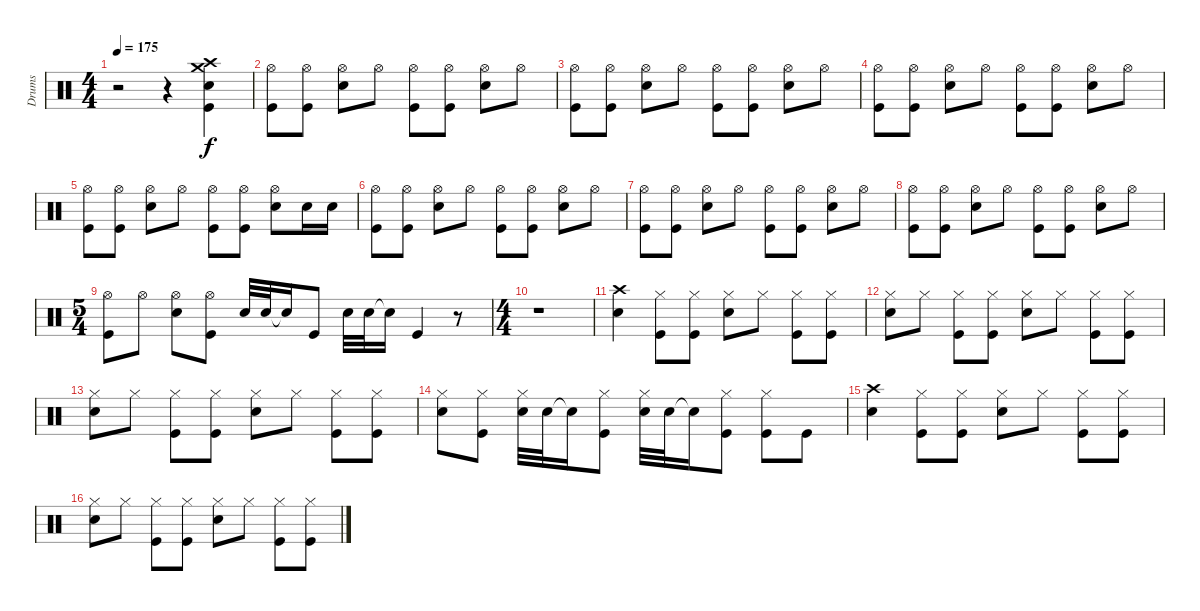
\track ("Drums" "Drums") {instrument percussion}
\staff {score}
\articulation defaults
\ts (4 4)
\tempo 175
\clef neutral
\ks c
r.2{dy f} r.4 ("Crash medium (hit)" "Crash high (hit)" "Snare (hit) 2" "Kick (hit)").4 |
("Hi-Hat (open)" "Kick (hit)").8 ("Hi-Hat (open)" "Kick (hit)").8 ("Hi-Hat (open)" "Snare (hit) 2").8 "Hi-Hat (open)".8 ("Hi-Hat (open)" "Kick (hit)").8 ("Hi-Hat (open)" "Kick (hit)").8 ("Hi-Hat (open)" "Snare (hit) 2").8 "Hi-Hat (open)".8 |
("Hi-Hat (open)" "Kick (hit)").8 ("Hi-Hat (open)" "Kick (hit)").8 ("Hi-Hat (open)" "Snare (hit) 2").8 "Hi-Hat (open)".8 ("Hi-Hat (open)" "Kick (hit)").8 ("Hi-Hat (open)" "Kick (hit)").8 ("Hi-Hat (open)" "Snare (hit) 2").8 "Hi-Hat (open)".8 |
("Hi-Hat (open)" "Kick (hit)").8 ("Hi-Hat (open)" "Kick (hit)").8 ("Hi-Hat (open)" "Snare (hit) 2").8 "Hi-Hat (open)".8 ("Hi-Hat (open)" "Kick (hit)").8 ("Hi-Hat (open)" "Kick (hit)").8 ("Hi-Hat (open)" "Snare (hit) 2").8 "Hi-Hat (open)".8 |
("Hi-Hat (open)" "Kick (hit)").8 ("Hi-Hat (open)" "Kick (hit)").8 ("Hi-Hat (open)" "Snare (hit) 2").8 "Hi-Hat (open)".8 ("Hi-Hat (open)" "Kick (hit)").8 ("Hi-Hat (open)" "Kick (hit)").8 ("Hi-Hat (open)" "Snare (hit) 2").8 "Snare (hit) 2".16 "Snare (hit) 2".16 |
("Hi-Hat (open)" "Kick (hit)").8 ("Hi-Hat (open)" "Kick (hit)").8 ("Hi-Hat (open)" "Snare (hit) 2").8 "Hi-Hat (open)".8 ("Hi-Hat (open)" "Kick (hit)").8 ("Hi-Hat (open)" "Kick (hit)").8 ("Hi-Hat (open)" "Snare (hit) 2").8 "Hi-Hat (open)".8 |
("Hi-Hat (open)" "Kick (hit)").8 ("Hi-Hat (open)" "Kick (hit)").8 ("Hi-Hat (open)" "Snare (hit) 2").8 "Hi-Hat (open)".8 ("Hi-Hat (open)" "Kick (hit)").8 ("Hi-Hat (open)" "Kick (hit)").8 ("Hi-Hat (open)" "Snare (hit) 2").8 "Hi-Hat (open)".8 |
("Hi-Hat (open)" "Kick (hit)").8 ("Hi-Hat (open)" "Kick (hit)").8 ("Hi-Hat (open)" "Snare (hit) 2").8 "Hi-Hat (open)".8 ("Hi-Hat (open)" "Kick (hit)").8 ("Hi-Hat (open)" "Kick (hit)").8 ("Hi-Hat (open)" "Snare (hit) 2").8 "Hi-Hat (open)".8 |
\ts (5 4)
("Hi-Hat (open)" "Kick (hit)").8 "Hi-Hat (open)".8 ("Hi-Hat (open)" "Snare (hit) 2").8 ("Hi-Hat (open)" "Kick (hit)").8 "Snare (hit) 2".32 "Snare (hit) 2".32 "Snare (hit)"{t}.16 "Kick (hit)".8 "Snare (hit) 2".32 "Snare (hit) 2".32 "Snare (hit)"{t}.16 "Kick (hit)".4 r.8 |
\ts (4 4)
r.1 |
("Crash high (hit)" "Snare (hit) 2").4 ("Hi-Hat (closed)" "Kick (hit)").8 ("Hi-Hat (closed)" "Kick (hit)").8 ("Hi-Hat (closed)" "Snare (hit) 2").8 "Hi-Hat (closed)".8 ("Hi-Hat (closed)" "Kick (hit)").8 ("Hi-Hat (closed)" "Kick (hit)").8 |
("Hi-Hat (closed)" "Snare (hit) 2").8 "Hi-Hat (closed)".8 ("Hi-Hat (closed)" "Kick (hit)").8 ("Hi-Hat (closed)" "Kick (hit)").8 ("Hi-Hat (closed)" "Snare (hit) 2").8 "Hi-Hat (closed)".8 ("Hi-Hat (closed)" "Kick (hit)").8 ("Hi-Hat (closed)" "Kick (hit)").8 |
("Hi-Hat (closed)" "Snare (hit) 2").8 "Hi-Hat (closed)".8 ("Hi-Hat (closed)" "Kick (hit)").8 ("Hi-Hat (closed)" "Kick (hit)").8 ("Hi-Hat (closed)" "Snare (hit) 2").8 "Hi-Hat (closed)".8 ("Hi-Hat (closed)" "Kick (hit)").8 ("Hi-Hat (closed)" "Kick (hit)").8 |
("Hi-Hat (closed)" "Snare (hit) 2").8 ("Hi-Hat (closed)" "Kick (hit)").8 ("Hi-Hat (closed)" "Snare (hit) 2").32 "Snare (hit) 2".32 "Snare (hit)"{t}.16 ("Hi-Hat (closed)" "Kick (hit)").8 ("Hi-Hat (closed)" "Snare (hit) 2").32 "Snare (hit) 2".32 "Snare (hit)"{t}.16 ("Hi-Hat (closed)" "Kick (hit)").8 ("Hi-Hat (closed)" "Kick (hit)").8 "Kick (hit)".8 |
("Crash high (hit)" "Snare (hit) 2").4 ("Hi-Hat (closed)" "Kick (hit)").8 ("Hi-Hat (closed)" "Kick (hit)").8 ("Hi-Hat (closed)" "Snare (hit) 2").8 "Hi-Hat (closed)".8 ("Hi-Hat (closed)" "Kick (hit)").8 ("Hi-Hat (closed)" "Kick (hit)").8 |
("Hi-Hat (closed)" "Snare (hit) 2").8 "Hi-Hat (closed)".8 ("Hi-Hat (closed)" "Kick (hit)").8 ("Hi-Hat (closed)" "Kick (hit)").8 ("Hi-Hat (closed)" "Snare (hit) 2").8 "Hi-Hat (closed)".8 ("Hi-Hat (closed)" "Kick (hit)").8 ("Hi-Hat (closed)" "Kick (hit)").8
